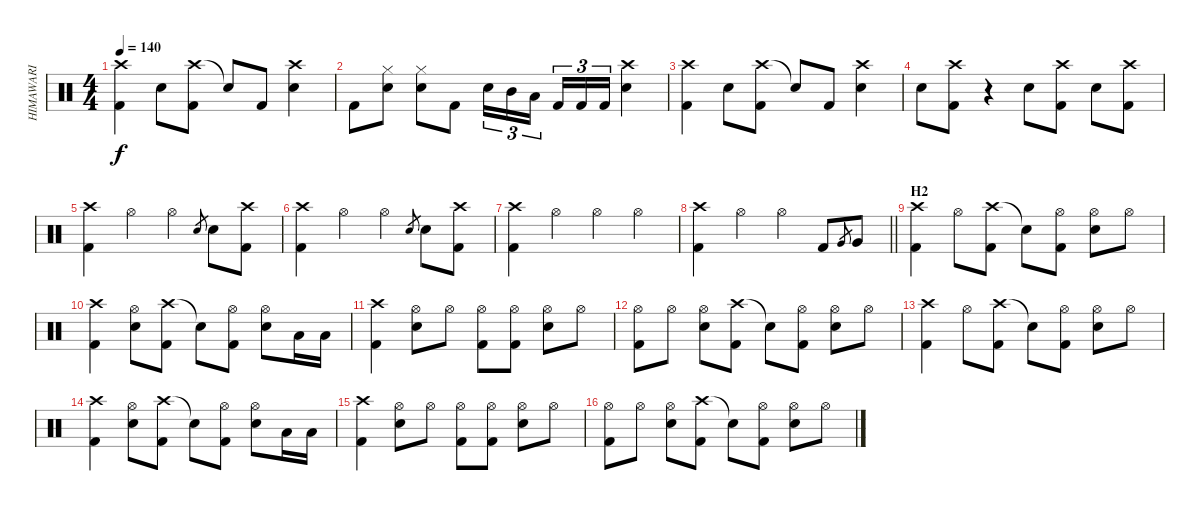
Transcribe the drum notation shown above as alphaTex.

\track ("HIMAWARI" "HIMAWARI") {instrument percussion}
\staff {score}
\articulation defaults
\ts (4 4)
\tempo 140
\clef neutral
\ks c
("Crash high (hit)" "Kick (hit) 2").4{dy f} "Snare (hit) 2".8 ("Crash high (hit)" "Kick (hit) 2").8 "Snare (hit)"{t}.8 "Kick (hit) 2".8 ("Crash high (hit)" "Snare (hit) 2").4 |
"Kick (hit) 2".8 ("Hi-Hat (closed)" "Snare (hit) 2").8 ("Hi-Hat (closed)" "Snare (hit) 2").8 "Kick (hit) 2".8 "Snare (hit) 2".16{tu (3 2)} "Mid Tom (hit)".16{tu (3 2)} "Low Tom (hit)".16{tu (3 2)} "Kick (hit) 2".16{tu (3 2)} "Kick (hit) 2".16{tu (3 2)} "Kick (hit) 2".16{tu (3 2)} ("Crash high (hit)" "Snare (hit) 2").4 |
("Crash high (hit)" "Kick (hit) 2").4 "Snare (hit) 2".8 ("Crash high (hit)" "Kick (hit) 2").8 "Snare (hit)"{t}.8 "Kick (hit) 2".8 ("Crash high (hit)" "Snare (hit) 2").4 |
"Snare (hit) 2".8 ("Crash high (hit)" "Kick (hit) 2").8 r.4 "Snare (hit) 2".8 ("Crash high (hit)" "Kick (hit) 2").8 "Snare (hit) 2".8 ("Crash high (hit)" "Kick (hit) 2").8 |
("Crash high (hit)" "Kick (hit) 2").4 "Hi-Hat (open)".4 "Hi-Hat (open)".4 "Snare (hit) 2".8{gr} "Snare (hit) 2".8 ("Crash high (hit)" "Kick (hit) 2").8 |
("Crash high (hit)" "Kick (hit) 2").4 "Hi-Hat (open)".4 "Hi-Hat (open)".4 "Snare (hit) 2".8{gr} "Snare (hit) 2".8 ("Crash high (hit)" "Kick (hit) 2").8 |
("Crash high (hit)" "Kick (hit) 2").4 "Hi-Hat (open)".4 "Hi-Hat (open)".4 "Hi-Hat (open)".4 |
\barLineRight lightlight
("Crash high (hit)" "Kick (hit) 2").4 "Hi-Hat (open)".4 "Hi-Hat (open)".4 "Kick (hit) 2".8 "Very Low Tom (hit)".8{gr} "Very Low Tom (hit)".8 |
\section ("" "H2")
("Crash high (hit)" "Kick (hit) 2").4 "Hi-Hat (open)".8 ("Crash high (hit)" "Kick (hit) 2").8 "Snare (hit)"{t}.8 ("Hi-Hat (open)" "Kick (hit) 2").8 ("Hi-Hat (open)" "Snare (hit) 2").8 "Hi-Hat (open)".8 |
("Crash high (hit)" "Kick (hit) 2").4 ("Hi-Hat (open)" "Snare (hit) 2").8 ("Crash high (hit)" "Kick (hit) 2").8 "Snare (hit)"{t}.8 ("Hi-Hat (open)" "Kick (hit) 2").8 ("Hi-Hat (open)" "Snare (hit) 2").8 "Low Tom (hit)".16 "Low Tom (hit)".16 |
("Crash high (hit)" "Kick (hit) 2").4 ("Hi-Hat (open)" "Snare (hit) 2").8 "Hi-Hat (open)".8 ("Hi-Hat (open)" "Kick (hit) 2").8 ("Hi-Hat (open)" "Kick (hit) 2").8 ("Hi-Hat (open)" "Snare (hit) 2").8 "Hi-Hat (open)".8 |
("Hi-Hat (open)" "Kick (hit) 2").8 "Hi-Hat (open)".8 ("Hi-Hat (open)" "Snare (hit) 2").8 ("Crash high (hit)" "Kick (hit) 2").8 "Snare (hit)"{t}.8 ("Hi-Hat (open)" "Kick (hit) 2").8 ("Hi-Hat (open)" "Snare (hit) 2").8 "Hi-Hat (open)".8 |
("Crash high (hit)" "Kick (hit) 2").4 "Hi-Hat (open)".8 ("Crash high (hit)" "Kick (hit) 2").8 "Snare (hit)"{t}.8 ("Hi-Hat (open)" "Kick (hit) 2").8 ("Hi-Hat (open)" "Snare (hit) 2").8 "Hi-Hat (open)".8 |
("Crash high (hit)" "Kick (hit) 2").4 ("Hi-Hat (open)" "Snare (hit) 2").8 ("Crash high (hit)" "Kick (hit) 2").8 "Snare (hit)"{t}.8 ("Hi-Hat (open)" "Kick (hit) 2").8 ("Hi-Hat (open)" "Snare (hit) 2").8 "Low Tom (hit)".16 "Low Tom (hit)".16 |
("Crash high (hit)" "Kick (hit) 2").4 ("Hi-Hat (open)" "Snare (hit) 2").8 "Hi-Hat (open)".8 ("Hi-Hat (open)" "Kick (hit) 2").8 ("Hi-Hat (open)" "Kick (hit) 2").8 ("Hi-Hat (open)" "Snare (hit) 2").8 "Hi-Hat (open)".8 |
("Hi-Hat (open)" "Kick (hit) 2").8 "Hi-Hat (open)".8 ("Hi-Hat (open)" "Snare (hit) 2").8 ("Crash high (hit)" "Kick (hit) 2").8 "Snare (hit)"{t}.8 ("Hi-Hat (open)" "Kick (hit) 2").8 ("Hi-Hat (open)" "Snare (hit) 2").8 "Hi-Hat (open)".8
